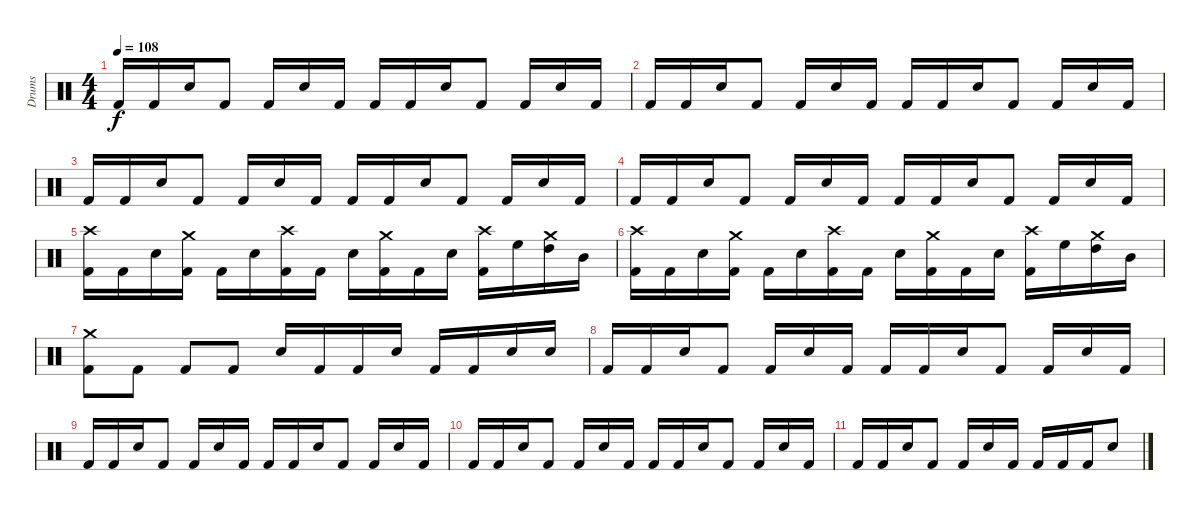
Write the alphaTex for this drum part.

\track ("Drums" "Drums") {instrument percussion}
\staff {score}
\articulation defaults
\ts (4 4)
\tempo 108
\clef neutral
\ks c "Kick (hit) 2".16{dy f} "Kick (hit) 2".16 "Snare (hit) 2".16 "Kick (hit) 2".8 "Kick (hit) 2".16 "Snare (hit) 2".16 "Kick (hit) 2".16 "Kick (hit) 2".16 "Kick (hit) 2".16 "Snare (hit) 2".16 "Kick (hit) 2".8 "Kick (hit) 2".16 "Snare (hit) 2".16 "Kick (hit) 2".16
|
"Kick (hit) 2".16 "Kick (hit) 2".16 "Snare (hit) 2".16 "Kick (hit) 2".8 "Kick (hit) 2".16 "Snare (hit) 2".16 "Kick (hit) 2".16 "Kick (hit) 2".16 "Kick (hit) 2".16 "Snare (hit) 2".16 "Kick (hit) 2".8 "Kick (hit) 2".16 "Snare (hit) 2".16 "Kick (hit) 2".16 |
"Kick (hit) 2".16 "Kick (hit) 2".16 "Snare (hit) 2".16 "Kick (hit) 2".8 "Kick (hit) 2".16 "Snare (hit) 2".16 "Kick (hit) 2".16 "Kick (hit) 2".16 "Kick (hit) 2".16 "Snare (hit) 2".16 "Kick (hit) 2".8 "Kick (hit) 2".16 "Snare (hit) 2".16 "Kick (hit) 2".16 |
"Kick (hit) 2".16 "Kick (hit) 2".16 "Snare (hit) 2".16 "Kick (hit) 2".8 "Kick (hit) 2".16 "Snare (hit) 2".16 "Kick (hit) 2".16 "Kick (hit) 2".16 "Kick (hit) 2".16 "Snare (hit) 2".16 "Kick (hit) 2".8 "Kick (hit) 2".16 "Snare (hit) 2".16 "Kick (hit) 2".16 |
("Kick (hit) 2" "Crash high (hit)").16 "Kick (hit) 2".16 "Snare (hit) 2".16 ("Kick (hit) 2" "Crash medium (hit)").16 "Kick (hit) 2".16 "Snare (hit) 2".16 ("Kick (hit) 2" "Crash high (hit)").16 "Kick (hit) 2".16 "Snare (hit) 2".16 ("Kick (hit) 2" "Crash medium (hit)").16 "Kick (hit) 2".16 "Snare (hit) 2".16 ("Kick (hit) 2" "Crash high (hit)").16 "High Floor Tom (hit)".16 ("High Tom (hit)" "Crash medium (hit)").16 "Mid Tom (hit)".16 |
("Kick (hit) 2" "Crash high (hit)").16 "Kick (hit) 2".16 "Snare (hit) 2".16 ("Kick (hit) 2" "Crash medium (hit)").16 "Kick (hit) 2".16 "Snare (hit) 2".16 ("Kick (hit) 2" "Crash high (hit)").16 "Kick (hit) 2".16 "Snare (hit) 2".16 ("Kick (hit) 2" "Crash medium (hit)").16 "Kick (hit) 2".16 "Snare (hit) 2".16 ("Kick (hit) 2" "Crash high (hit)").16 "High Floor Tom (hit)".16 ("High Tom (hit)" "Crash medium (hit)").16 "Mid Tom (hit)".16 |
("Kick (hit) 2" "Crash medium (hit)").8 "Kick (hit) 2".8 "Kick (hit) 2".8 "Kick (hit) 2".8 "Snare (hit) 2".16 "Kick (hit) 2".16 "Kick (hit) 2".16 "Snare (hit) 2".16 "Kick (hit) 2".16 "Kick (hit) 2".16 "Snare (hit) 2".16 "Snare (hit) 2".16 |
"Kick (hit) 2".16 "Kick (hit) 2".16 "Snare (hit) 2".16 "Kick (hit) 2".8 "Kick (hit) 2".16 "Snare (hit) 2".16 "Kick (hit) 2".16 "Kick (hit) 2".16 "Kick (hit) 2".16 "Snare (hit) 2".16 "Kick (hit) 2".8 "Kick (hit) 2".16 "Snare (hit) 2".16 "Kick (hit) 2".16 |
"Kick (hit) 2".16 "Kick (hit) 2".16 "Snare (hit) 2".16 "Kick (hit) 2".8 "Kick (hit) 2".16 "Snare (hit) 2".16 "Kick (hit) 2".16 "Kick (hit) 2".16 "Kick (hit) 2".16 "Snare (hit) 2".16 "Kick (hit) 2".8 "Kick (hit) 2".16 "Snare (hit) 2".16 "Kick (hit) 2".16 |
"Kick (hit) 2".16 "Kick (hit) 2".16 "Snare (hit) 2".16 "Kick (hit) 2".8 "Kick (hit) 2".16 "Snare (hit) 2".16 "Kick (hit) 2".16 "Kick (hit) 2".16 "Kick (hit) 2".16 "Snare (hit) 2".16 "Kick (hit) 2".8 "Kick (hit) 2".16 "Snare (hit) 2".16 "Kick (hit) 2".16 |
"Kick (hit) 2".16 "Kick (hit) 2".16 "Snare (hit) 2".16 "Kick (hit) 2".8 "Kick (hit) 2".16 "Snare (hit) 2".16 "Kick (hit) 2".16 "Kick (hit) 2".16 "Kick (hit) 2".16 "Kick (hit) 2".16 "Snare (hit) 2".8
